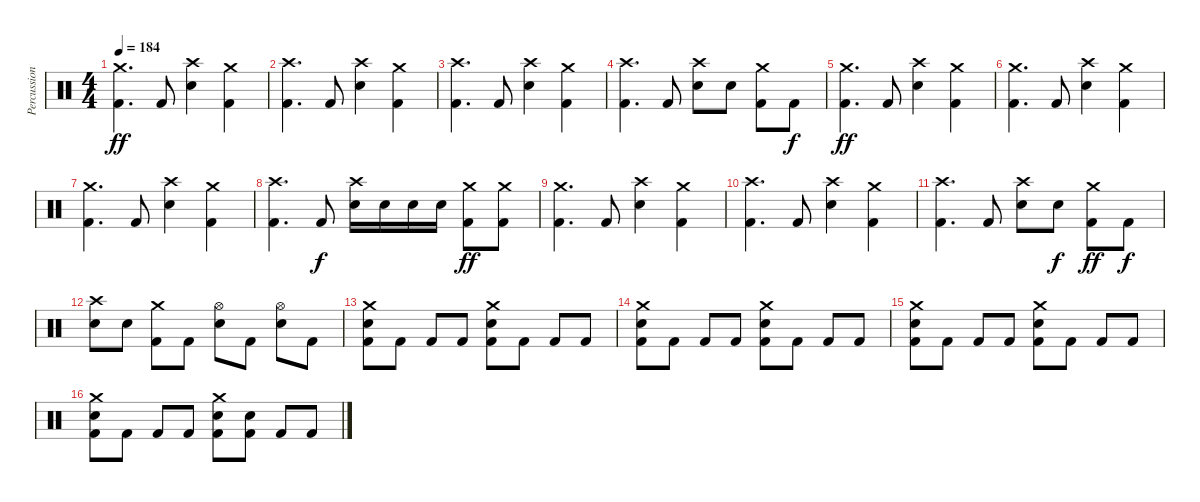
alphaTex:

\track ("Percussion" "Percussion") {instrument percussion}
\staff {score}
\articulation defaults
\ts (4 4)
\tempo 184
\clef neutral
\ks c
("Crash medium (hit)" "Kick (hit) 2").4{d dy ff} "Kick (hit) 2".8 ("Crash high (hit)" "Electric Snare (hit)").4 ("Crash medium (hit)" "Kick (hit) 2").4 |
("Crash high (hit)" "Kick (hit) 2").4{d} "Kick (hit) 2".8 ("Crash high (hit)" "Electric Snare (hit)").4 ("Crash medium (hit)" "Kick (hit) 2").4 |
("Crash high (hit)" "Kick (hit) 2").4{d} "Kick (hit) 2".8 ("Crash high (hit)" "Electric Snare (hit)").4 ("Crash medium (hit)" "Kick (hit) 2").4 |
("Crash high (hit)" "Kick (hit) 2").4{d} "Kick (hit) 2".8 ("Crash high (hit)" "Electric Snare (hit)").8 "Electric Snare (hit)".8 ("Crash medium (hit)" "Kick (hit) 2").8 "Kick (hit) 2".8{dy f} |
("Crash medium (hit)" "Kick (hit) 2").4{d dy ff} "Kick (hit) 2".8 ("Crash high (hit)" "Electric Snare (hit)").4 ("Crash medium (hit)" "Kick (hit) 2").4 |
("Crash medium (hit)" "Kick (hit) 2").4{d} "Kick (hit) 2".8 ("Crash high (hit)" "Electric Snare (hit)").4 ("Crash medium (hit)" "Kick (hit) 2").4 |
("Crash medium (hit)" "Kick (hit) 2").4{d} "Kick (hit) 2".8 ("Crash high (hit)" "Electric Snare (hit)").4 ("Crash medium (hit)" "Kick (hit) 2").4 |
("Crash high (hit)" "Kick (hit) 2").4{d} "Kick (hit) 2".8{dy f} ("Crash high (hit)" "Electric Snare (hit)").16 "Electric Snare (hit)".16 "Electric Snare (hit)".16 "Electric Snare (hit)".16 ("Crash medium (hit)" "Kick (hit) 2").8{dy ff} ("Crash medium (hit)" "Kick (hit) 2").8 |
("Crash medium (hit)" "Kick (hit) 2").4{d} "Kick (hit) 2".8 ("Crash high (hit)" "Electric Snare (hit)").4 ("Crash medium (hit)" "Kick (hit) 2").4 |
("Crash high (hit)" "Kick (hit) 2").4{d} "Kick (hit) 2".8 ("Crash high (hit)" "Electric Snare (hit)").4 ("Crash medium (hit)" "Kick (hit) 2").4 |
("Crash high (hit)" "Kick (hit) 2").4{d} "Kick (hit) 2".8 ("Crash high (hit)" "Electric Snare (hit)").8 "Electric Snare (hit)".8{dy f} ("Crash medium (hit)" "Kick (hit) 2").8{dy ff} "Kick (hit) 2".8{dy f} |
("Crash high (hit)" "Electric Snare (hit)").8 "Electric Snare (hit)".8 ("Crash medium (hit)" "Kick (hit) 2").8 "Kick (hit) 2".8 ("Hi-Hat (open)" "Electric Snare (hit)").8 "Kick (hit) 2".8 ("Hi-Hat (open)" "Electric Snare (hit)").8 "Kick (hit) 2".8 |
("Crash medium (hit)" "Electric Snare (hit)" "Kick (hit) 2").8 "Kick (hit) 2".8 "Kick (hit) 2".8 "Kick (hit) 2".8 ("Crash medium (hit)" "Electric Snare (hit)" "Kick (hit) 2").8 "Kick (hit) 2".8 "Kick (hit) 2".8 "Kick (hit) 2".8 |
("Crash medium (hit)" "Electric Snare (hit)" "Kick (hit) 2").8 "Kick (hit) 2".8 "Kick (hit) 2".8 "Kick (hit) 2".8 ("Crash medium (hit)" "Electric Snare (hit)" "Kick (hit) 2").8 "Kick (hit) 2".8 "Kick (hit) 2".8 "Kick (hit) 2".8 |
("Crash medium (hit)" "Electric Snare (hit)" "Kick (hit) 2").8 "Kick (hit) 2".8 "Kick (hit) 2".8 "Kick (hit) 2".8 ("Crash medium (hit)" "Electric Snare (hit)" "Kick (hit) 2").8 "Kick (hit) 2".8 "Kick (hit) 2".8 "Kick (hit) 2".8 |
("Crash medium (hit)" "Electric Snare (hit)" "Kick (hit) 2").8 "Kick (hit) 2".8 "Kick (hit) 2".8 "Kick (hit) 2".8 ("Crash medium (hit)" "Electric Snare (hit)" "Kick (hit) 2").8 ("Electric Snare (hit)" "Kick (hit) 2").8 "Kick (hit) 2".8 "Kick (hit) 2".8
